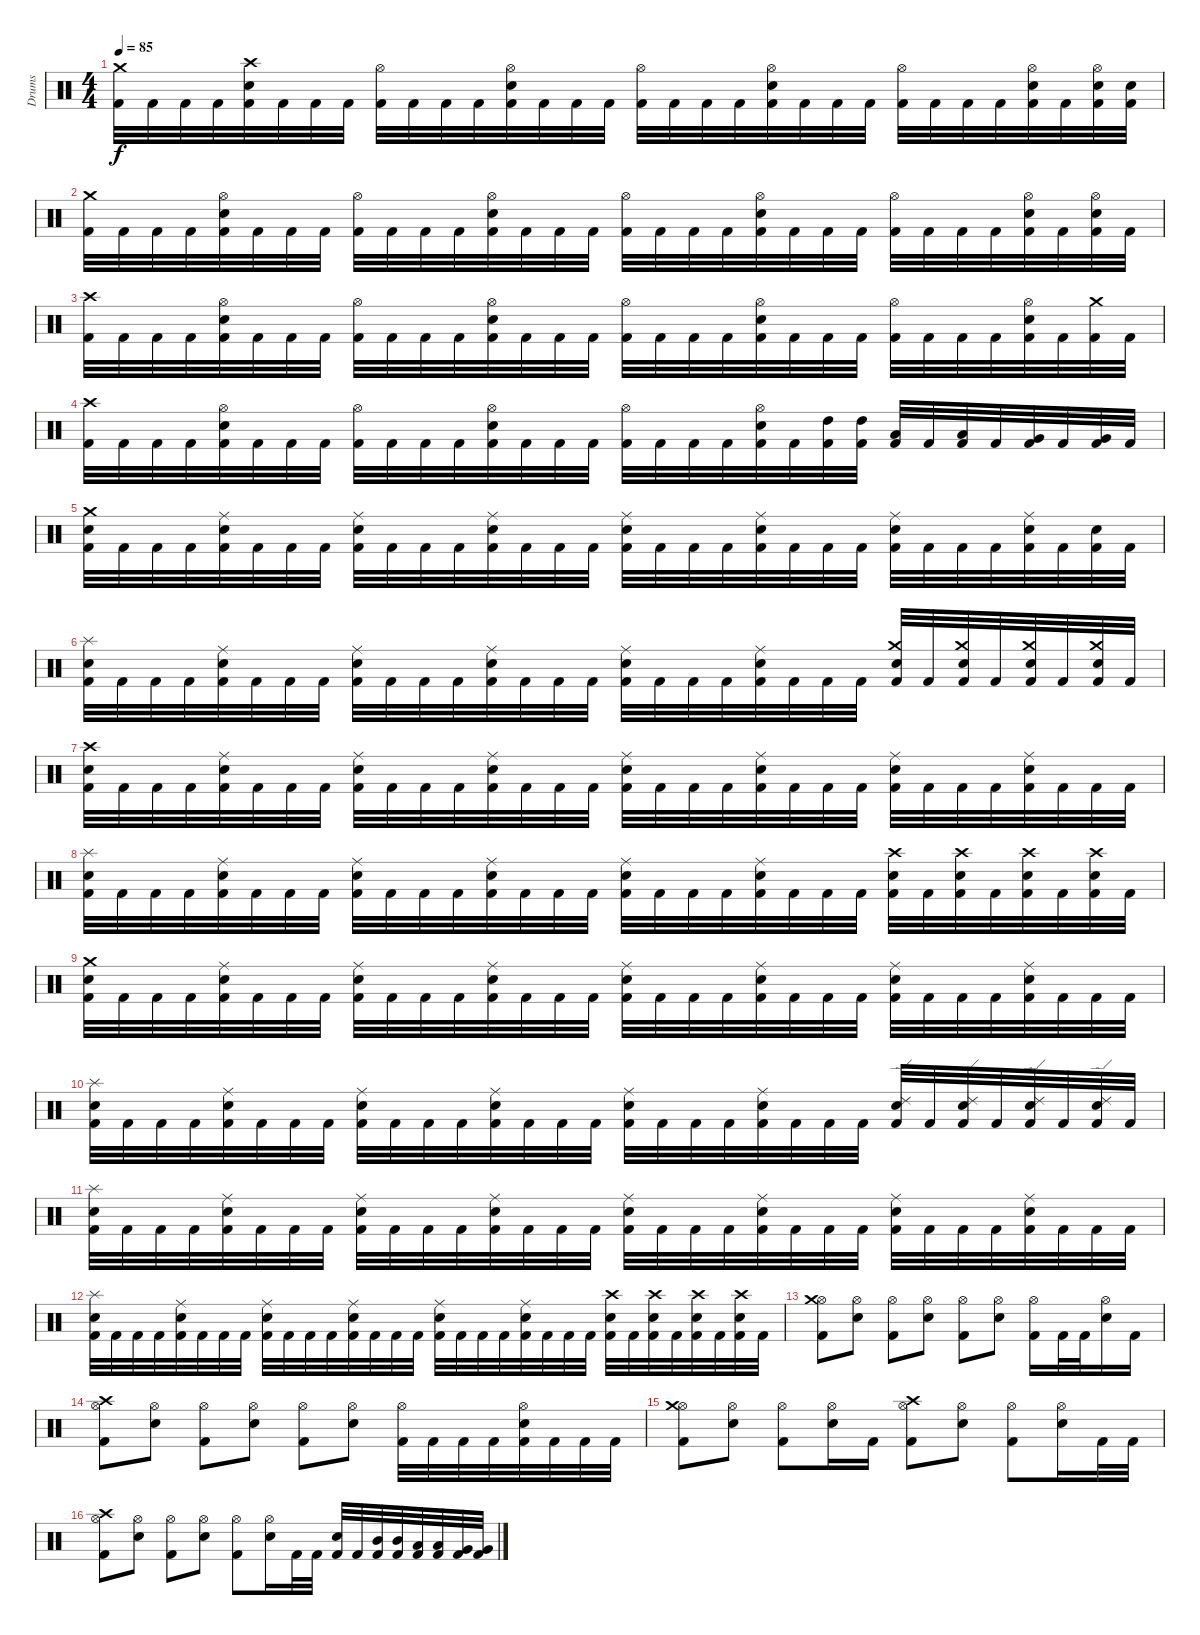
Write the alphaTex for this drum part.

\track ("Drums" "Drums") {instrument percussion}
\staff {score}
\articulation defaults
\ts (4 4)
\tempo 85
\clef neutral
\ks c
("Kick (hit) 2" "Crash medium (hit)").32{dy f} "Kick (hit) 2".32 "Kick (hit) 2".32 "Kick (hit) 2".32 ("Kick (hit) 2" "Electric Snare (hit)" "Crash high (hit)").32 "Kick (hit) 2".32 "Kick (hit) 2".32 "Kick (hit) 2".32 ("Kick (hit) 2" "Hi-Hat (open)").32 "Kick (hit) 2".32 "Kick (hit) 2".32 "Kick (hit) 2".32 ("Kick (hit) 2" "Electric Snare (hit)" "Hi-Hat (open)").32 "Kick (hit) 2".32 "Kick (hit) 2".32 "Kick (hit) 2".32 ("Kick (hit) 2" "Hi-Hat (open)").32 "Kick (hit) 2".32 "Kick (hit) 2".32 "Kick (hit) 2".32 ("Kick (hit) 2" "Electric Snare (hit)" "Hi-Hat (open)").32 "Kick (hit) 2".32 "Kick (hit) 2".32 "Kick (hit) 2".32 ("Kick (hit) 2" "Hi-Hat (open)").32 "Kick (hit) 2".32 "Kick (hit) 2".32 "Kick (hit) 2".32 ("Kick (hit) 2" "Electric Snare (hit)" "Hi-Hat (open)").32 "Kick (hit) 2".32 ("Kick (hit) 2" "Electric Snare (hit)" "Hi-Hat (open)").32 ("Kick (hit) 2" "Electric Snare (hit)").32 |
("Kick (hit) 2" "Crash medium (hit)").32 "Kick (hit) 2".32 "Kick (hit) 2".32 "Kick (hit) 2".32 ("Kick (hit) 2" "Electric Snare (hit)" "Hi-Hat (open)").32 "Kick (hit) 2".32 "Kick (hit) 2".32 "Kick (hit) 2".32 ("Kick (hit) 2" "Hi-Hat (open)").32 "Kick (hit) 2".32 "Kick (hit) 2".32 "Kick (hit) 2".32 ("Kick (hit) 2" "Electric Snare (hit)" "Hi-Hat (open)").32 "Kick (hit) 2".32 "Kick (hit) 2".32 "Kick (hit) 2".32 ("Kick (hit) 2" "Hi-Hat (open)").32 "Kick (hit) 2".32 "Kick (hit) 2".32 "Kick (hit) 2".32 ("Kick (hit) 2" "Electric Snare (hit)" "Hi-Hat (open)").32 "Kick (hit) 2".32 "Kick (hit) 2".32 "Kick (hit) 2".32 ("Kick (hit) 2" "Hi-Hat (open)").32 "Kick (hit) 2".32 "Kick (hit) 2".32 "Kick (hit) 2".32 ("Kick (hit) 2" "Electric Snare (hit)" "Hi-Hat (open)").32 "Kick (hit) 2".32 ("Kick (hit) 2" "Electric Snare (hit)" "Hi-Hat (open)").32 "Kick (hit) 2".32 |
("Kick (hit) 2" "Crash high (hit)").32 "Kick (hit) 2".32 "Kick (hit) 2".32 "Kick (hit) 2".32 ("Kick (hit) 2" "Electric Snare (hit)" "Hi-Hat (open)").32 "Kick (hit) 2".32 "Kick (hit) 2".32 "Kick (hit) 2".32 ("Kick (hit) 2" "Hi-Hat (open)").32 "Kick (hit) 2".32 "Kick (hit) 2".32 "Kick (hit) 2".32 ("Kick (hit) 2" "Electric Snare (hit)" "Hi-Hat (open)").32 "Kick (hit) 2".32 "Kick (hit) 2".32 "Kick (hit) 2".32 ("Kick (hit) 2" "Hi-Hat (open)").32 "Kick (hit) 2".32 "Kick (hit) 2".32 "Kick (hit) 2".32 ("Kick (hit) 2" "Electric Snare (hit)" "Hi-Hat (open)").32 "Kick (hit) 2".32 "Kick (hit) 2".32 "Kick (hit) 2".32 ("Kick (hit) 2" "Hi-Hat (open)").32 "Kick (hit) 2".32 "Kick (hit) 2".32 "Kick (hit) 2".32 ("Kick (hit) 2" "Electric Snare (hit)" "Hi-Hat (open)").32 "Kick (hit) 2".32 ("Kick (hit) 2" "Crash medium (hit)").32 "Kick (hit) 2".32 |
("Kick (hit) 2" "Crash high (hit)").32 "Kick (hit) 2".32 "Kick (hit) 2".32 "Kick (hit) 2".32 ("Kick (hit) 2" "Electric Snare (hit)" "Hi-Hat (open)").32 "Kick (hit) 2".32 "Kick (hit) 2".32 "Kick (hit) 2".32 ("Kick (hit) 2" "Hi-Hat (open)").32 "Kick (hit) 2".32 "Kick (hit) 2".32 "Kick (hit) 2".32 ("Kick (hit) 2" "Electric Snare (hit)" "Hi-Hat (open)").32 "Kick (hit) 2".32 "Kick (hit) 2".32 "Kick (hit) 2".32 ("Kick (hit) 2" "Hi-Hat (open)").32 "Kick (hit) 2".32 "Kick (hit) 2".32 "Kick (hit) 2".32 ("Kick (hit) 2" "Electric Snare (hit)" "Hi-Hat (open)").32 "Kick (hit) 2".32 ("Kick (hit) 2" "High Tom (hit)").32 ("Kick (hit) 2" "High Tom (hit)").32 ("Kick (hit) 2" "Low Tom (hit)").32 "Kick (hit) 2".32 ("Kick (hit) 2" "Low Tom (hit)").32 "Kick (hit) 2".32 ("Kick (hit) 2" "Very Low Tom (hit)").32 "Kick (hit) 2".32 ("Kick (hit) 2" "Very Low Tom (hit)").32 "Kick (hit) 2".32 |
("Kick (hit) 2" "Electric Snare (hit)" "Crash medium (hit)").32 "Kick (hit) 2".32 "Kick (hit) 2".32 "Kick (hit) 2".32 ("Kick (hit) 2" "Electric Snare (hit)" "Ride (middle)").32 "Kick (hit) 2".32 "Kick (hit) 2".32 "Kick (hit) 2".32 ("Kick (hit) 2" "Electric Snare (hit)" "Ride (middle)").32 "Kick (hit) 2".32 "Kick (hit) 2".32 "Kick (hit) 2".32 ("Kick (hit) 2" "Electric Snare (hit)" "Ride (middle)").32 "Kick (hit) 2".32 "Kick (hit) 2".32 "Kick (hit) 2".32 ("Kick (hit) 2" "Electric Snare (hit)" "Ride (middle)").32 "Kick (hit) 2".32 "Kick (hit) 2".32 "Kick (hit) 2".32 ("Kick (hit) 2" "Electric Snare (hit)" "Ride (middle)").32 "Kick (hit) 2".32 "Kick (hit) 2".32 "Kick (hit) 2".32 ("Kick (hit) 2" "Electric Snare (hit)" "Ride (middle)").32 "Kick (hit) 2".32 "Kick (hit) 2".32 "Kick (hit) 2".32 ("Kick (hit) 2" "Electric Snare (hit)" "Ride (middle)").32 "Kick (hit) 2".32 ("Kick (hit) 2" "Electric Snare (hit)").32 "Kick (hit) 2".32 |
("Kick (hit) 2" "Electric Snare (hit)" "Splash (hit)").32 "Kick (hit) 2".32 "Kick (hit) 2".32 "Kick (hit) 2".32 ("Kick (hit) 2" "Electric Snare (hit)" "Ride (middle)").32 "Kick (hit) 2".32 "Kick (hit) 2".32 "Kick (hit) 2".32 ("Kick (hit) 2" "Electric Snare (hit)" "Ride (middle)").32 "Kick (hit) 2".32 "Kick (hit) 2".32 "Kick (hit) 2".32 ("Kick (hit) 2" "Electric Snare (hit)" "Ride (middle)").32 "Kick (hit) 2".32 "Kick (hit) 2".32 "Kick (hit) 2".32 ("Kick (hit) 2" "Electric Snare (hit)" "Ride (middle)").32 "Kick (hit) 2".32 "Kick (hit) 2".32 "Kick (hit) 2".32 ("Kick (hit) 2" "Electric Snare (hit)" "Ride (middle)").32 "Kick (hit) 2".32 "Kick (hit) 2".32 "Kick (hit) 2".32 ("Kick (hit) 2" "Electric Snare (hit)" "Crash medium (hit)").32 "Kick (hit) 2".32 ("Kick (hit) 2" "Electric Snare (hit)" "Crash medium (hit)").32 "Kick (hit) 2".32 ("Kick (hit) 2" "Electric Snare (hit)" "Crash medium (hit)").32 "Kick (hit) 2".32 ("Kick (hit) 2" "Electric Snare (hit)" "Crash medium (hit)").32 "Kick (hit) 2".32 |
("Kick (hit) 2" "Electric Snare (hit)" "Crash high (hit)").32 "Kick (hit) 2".32 "Kick (hit) 2".32 "Kick (hit) 2".32 ("Kick (hit) 2" "Electric Snare (hit)" "Ride (middle)").32 "Kick (hit) 2".32 "Kick (hit) 2".32 "Kick (hit) 2".32 ("Kick (hit) 2" "Electric Snare (hit)" "Ride (middle)").32 "Kick (hit) 2".32 "Kick (hit) 2".32 "Kick (hit) 2".32 ("Kick (hit) 2" "Electric Snare (hit)" "Ride (middle)").32 "Kick (hit) 2".32 "Kick (hit) 2".32 "Kick (hit) 2".32 ("Kick (hit) 2" "Electric Snare (hit)" "Ride (middle)").32 "Kick (hit) 2".32 "Kick (hit) 2".32 "Kick (hit) 2".32 ("Kick (hit) 2" "Electric Snare (hit)" "Ride (middle)").32 "Kick (hit) 2".32 "Kick (hit) 2".32 "Kick (hit) 2".32 ("Kick (hit) 2" "Electric Snare (hit)" "Ride (middle)").32 "Kick (hit) 2".32 "Kick (hit) 2".32 "Kick (hit) 2".32 ("Kick (hit) 2" "Electric Snare (hit)" "Ride (middle)").32 "Kick (hit) 2".32 "Kick (hit) 2".32 "Kick (hit) 2".32 |
("Kick (hit) 2" "Electric Snare (hit)" "Splash (hit)").32 "Kick (hit) 2".32 "Kick (hit) 2".32 "Kick (hit) 2".32 ("Kick (hit) 2" "Electric Snare (hit)" "Ride (middle)").32 "Kick (hit) 2".32 "Kick (hit) 2".32 "Kick (hit) 2".32 ("Kick (hit) 2" "Electric Snare (hit)" "Ride (middle)").32 "Kick (hit) 2".32 "Kick (hit) 2".32 "Kick (hit) 2".32 ("Kick (hit) 2" "Electric Snare (hit)" "Ride (middle)").32 "Kick (hit) 2".32 "Kick (hit) 2".32 "Kick (hit) 2".32 ("Kick (hit) 2" "Electric Snare (hit)" "Ride (middle)").32 "Kick (hit) 2".32 "Kick (hit) 2".32 "Kick (hit) 2".32 ("Kick (hit) 2" "Electric Snare (hit)" "Ride (middle)").32 "Kick (hit) 2".32 "Kick (hit) 2".32 "Kick (hit) 2".32 ("Kick (hit) 2" "Electric Snare (hit)" "Crash high (hit)").32 "Kick (hit) 2".32 ("Kick (hit) 2" "Electric Snare (hit)" "Crash high (hit)").32 "Kick (hit) 2".32 ("Kick (hit) 2" "Electric Snare (hit)" "Crash high (hit)").32 "Kick (hit) 2".32 ("Kick (hit) 2" "Electric Snare (hit)" "Crash high (hit)").32 "Kick (hit) 2".32 |
("Kick (hit) 2" "Electric Snare (hit)" "Crash medium (hit)").32 "Kick (hit) 2".32 "Kick (hit) 2".32 "Kick (hit) 2".32 ("Kick (hit) 2" "Electric Snare (hit)" "Ride (middle)").32 "Kick (hit) 2".32 "Kick (hit) 2".32 "Kick (hit) 2".32 ("Kick (hit) 2" "Electric Snare (hit)" "Ride (middle)").32 "Kick (hit) 2".32 "Kick (hit) 2".32 "Kick (hit) 2".32 ("Kick (hit) 2" "Electric Snare (hit)" "Ride (middle)").32 "Kick (hit) 2".32 "Kick (hit) 2".32 "Kick (hit) 2".32 ("Kick (hit) 2" "Electric Snare (hit)" "Ride (middle)").32 "Kick (hit) 2".32 "Kick (hit) 2".32 "Kick (hit) 2".32 ("Kick (hit) 2" "Electric Snare (hit)" "Ride (middle)").32 "Kick (hit) 2".32 "Kick (hit) 2".32 "Kick (hit) 2".32 ("Kick (hit) 2" "Electric Snare (hit)" "Ride (middle)").32 "Kick (hit) 2".32 "Kick (hit) 2".32 "Kick (hit) 2".32 ("Kick (hit) 2" "Electric Snare (hit)" "Ride (middle)").32 "Kick (hit) 2".32 "Kick (hit) 2".32 "Kick (hit) 2".32 |
("Kick (hit) 2" "Electric Snare (hit)" "Splash (hit)").32 "Kick (hit) 2".32 "Kick (hit) 2".32 "Kick (hit) 2".32 ("Kick (hit) 2" "Electric Snare (hit)" "Ride (middle)").32 "Kick (hit) 2".32 "Kick (hit) 2".32 "Kick (hit) 2".32 ("Kick (hit) 2" "Electric Snare (hit)" "Ride (middle)").32 "Kick (hit) 2".32 "Kick (hit) 2".32 "Kick (hit) 2".32 ("Kick (hit) 2" "Electric Snare (hit)" "Ride (middle)").32 "Kick (hit) 2".32 "Kick (hit) 2".32 "Kick (hit) 2".32 ("Kick (hit) 2" "Electric Snare (hit)" "Ride (middle)").32 "Kick (hit) 2".32 "Kick (hit) 2".32 "Kick (hit) 2".32 ("Kick (hit) 2" "Electric Snare (hit)" "Ride (middle)").32 "Kick (hit) 2".32 "Kick (hit) 2".32 "Kick (hit) 2".32 ("Kick (hit) 2" "Electric Snare (hit)" "Ride (edge) 2").32 "Kick (hit) 2".32 ("Kick (hit) 2" "Electric Snare (hit)" "Ride (edge) 2").32 "Kick (hit) 2".32 ("Kick (hit) 2" "Electric Snare (hit)" "Ride (edge) 2").32 "Kick (hit) 2".32 ("Kick (hit) 2" "Electric Snare (hit)" "Ride (edge) 2").32 "Kick (hit) 2".32 |
("Kick (hit) 2" "Electric Snare (hit)" "Splash (hit)").32 "Kick (hit) 2".32 "Kick (hit) 2".32 "Kick (hit) 2".32 ("Kick (hit) 2" "Electric Snare (hit)" "Ride (middle)").32 "Kick (hit) 2".32 "Kick (hit) 2".32 "Kick (hit) 2".32 ("Kick (hit) 2" "Electric Snare (hit)" "Ride (middle)").32 "Kick (hit) 2".32 "Kick (hit) 2".32 "Kick (hit) 2".32 ("Kick (hit) 2" "Electric Snare (hit)" "Ride (middle)").32 "Kick (hit) 2".32 "Kick (hit) 2".32 "Kick (hit) 2".32 ("Kick (hit) 2" "Electric Snare (hit)" "Ride (middle)").32 "Kick (hit) 2".32 "Kick (hit) 2".32 "Kick (hit) 2".32 ("Kick (hit) 2" "Electric Snare (hit)" "Ride (middle)").32 "Kick (hit) 2".32 "Kick (hit) 2".32 "Kick (hit) 2".32 ("Kick (hit) 2" "Electric Snare (hit)" "Ride (middle)").32 "Kick (hit) 2".32 "Kick (hit) 2".32 "Kick (hit) 2".32 ("Kick (hit) 2" "Electric Snare (hit)" "Ride (middle)").32 "Kick (hit) 2".32 "Kick (hit) 2".32 "Kick (hit) 2".32 |
("Kick (hit) 2" "Electric Snare (hit)" "Splash (hit)").32 "Kick (hit) 2".32 "Kick (hit) 2".32 "Kick (hit) 2".32 ("Kick (hit) 2" "Electric Snare (hit)" "Ride (middle)").32 "Kick (hit) 2".32 "Kick (hit) 2".32 "Kick (hit) 2".32 ("Kick (hit) 2" "Electric Snare (hit)" "Ride (middle)").32 "Kick (hit) 2".32 "Kick (hit) 2".32 "Kick (hit) 2".32 ("Kick (hit) 2" "Electric Snare (hit)" "Ride (middle)").32 "Kick (hit) 2".32 "Kick (hit) 2".32 "Kick (hit) 2".32 ("Kick (hit) 2" "Electric Snare (hit)" "Ride (middle)").32 "Kick (hit) 2".32 "Kick (hit) 2".32 "Kick (hit) 2".32 ("Kick (hit) 2" "Electric Snare (hit)" "Ride (middle)").32 "Kick (hit) 2".32 "Kick (hit) 2".32 "Kick (hit) 2".32 ("Kick (hit) 2" "Electric Snare (hit)" "Crash high (hit)").32 "Kick (hit) 2".32 ("Kick (hit) 2" "Electric Snare (hit)" "Crash high (hit)").32 "Kick (hit) 2".32 ("Kick (hit) 2" "Electric Snare (hit)" "Crash high (hit)").32 "Kick (hit) 2".32 ("Kick (hit) 2" "Electric Snare (hit)" "Crash high (hit)").32 "Kick (hit) 2".32 |
("Kick (hit) 2" "Hi-Hat (open)" "Crash medium (hit)").8 ("Electric Snare (hit)" "Hi-Hat (open)").8 ("Kick (hit) 2" "Hi-Hat (open)").8 ("Electric Snare (hit)" "Hi-Hat (open)").8 ("Kick (hit) 2" "Hi-Hat (open)").8 ("Electric Snare (hit)" "Hi-Hat (open)").8 ("Kick (hit) 2" "Hi-Hat (open)").16 "Kick (hit) 2".32 "Kick (hit) 2".32 ("Electric Snare (hit)" "Hi-Hat (open)").16 "Kick (hit) 2".16 |
("Kick (hit) 2" "Hi-Hat (open)" "Crash high (hit)").8 ("Electric Snare (hit)" "Hi-Hat (open)").8 ("Kick (hit) 2" "Hi-Hat (open)").8 ("Electric Snare (hit)" "Hi-Hat (open)").8 ("Kick (hit) 2" "Hi-Hat (open)").8 ("Electric Snare (hit)" "Hi-Hat (open)").8 ("Kick (hit) 2" "Hi-Hat (open)").32 "Kick (hit) 2".32 "Kick (hit) 2".32 "Kick (hit) 2".32 ("Kick (hit) 2" "Electric Snare (hit)" "Hi-Hat (open)").32 "Kick (hit) 2".32 "Kick (hit) 2".32 "Kick (hit) 2".32 |
("Kick (hit) 2" "Hi-Hat (open)" "Crash medium (hit)").8 ("Electric Snare (hit)" "Hi-Hat (open)").8 ("Kick (hit) 2" "Hi-Hat (open)").8 ("Electric Snare (hit)" "Hi-Hat (open)").16 "Kick (hit) 2".16 ("Kick (hit) 2" "Hi-Hat (open)" "Crash high (hit)").8 ("Electric Snare (hit)" "Hi-Hat (open)").8 ("Kick (hit) 2" "Hi-Hat (open)").8 ("Electric Snare (hit)" "Hi-Hat (open)").16 "Kick (hit) 2".32 "Kick (hit) 2".32 |
("Kick (hit) 2" "Hi-Hat (open)" "Crash high (hit)").8 ("Electric Snare (hit)" "Hi-Hat (open)").8 ("Kick (hit) 2" "Hi-Hat (open)").8 ("Electric Snare (hit)" "Hi-Hat (open)").8 ("Kick (hit) 2" "Hi-Hat (open)").8 ("Electric Snare (hit)" "Hi-Hat (open)").16 "Kick (hit) 2".32 "Kick (hit) 2".32 ("Kick (hit) 2" "Electric Snare (hit)").32 "Kick (hit) 2".32 ("Kick (hit) 2" "Mid Tom (hit)").32 ("Kick (hit) 2" "Mid Tom (hit)").32 ("Kick (hit) 2" "Low Tom (hit)").32 ("Kick (hit) 2" "Low Tom (hit)").32 ("Kick (hit) 2" "Very Low Tom (hit)").32 ("Kick (hit) 2" "Very Low Tom (hit)").32
